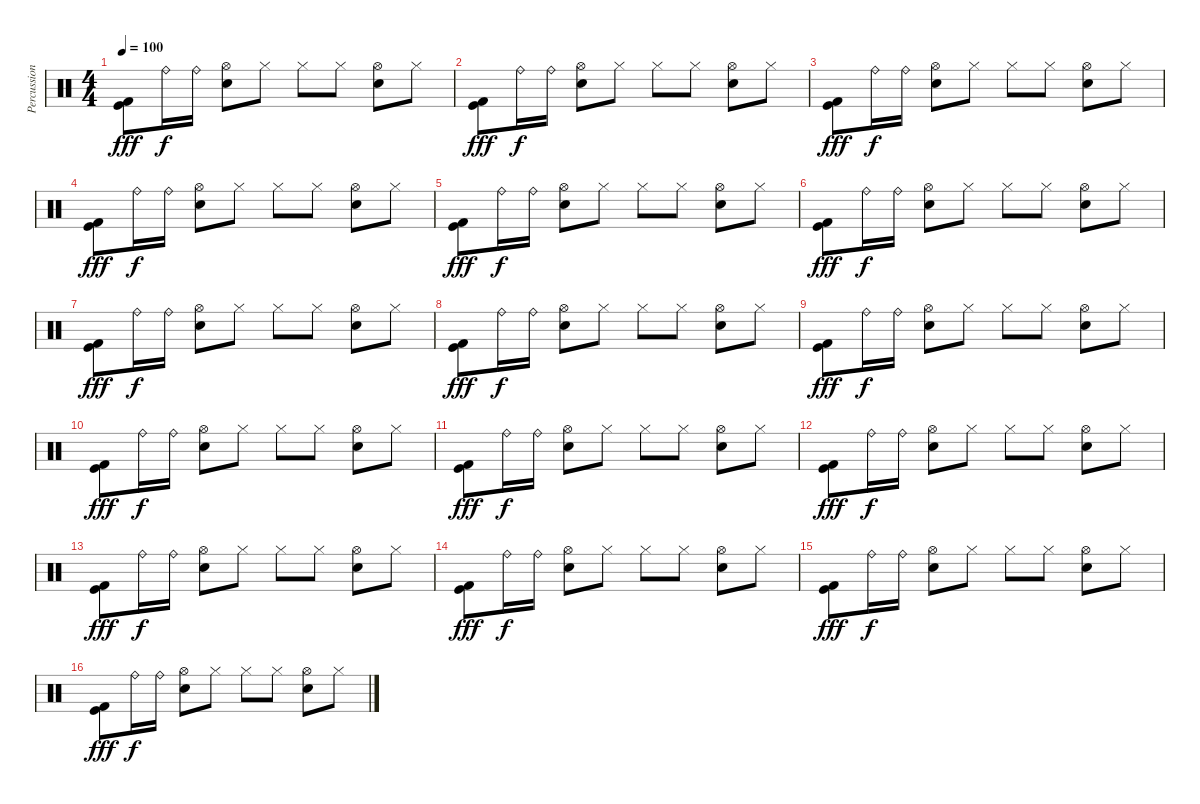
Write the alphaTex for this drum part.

\track ("Percussion" "Percussion") {instrument percussion}
\staff {score}
\articulation defaults
\ts (4 4)
\tempo 100
\clef neutral
\ks c
("Kick (hit) 2" "Kick (hit)").8{dy fff} "Ride (bell)".16{dy f} "Ride (bell)".16 ("Snare (hit) 2" "Hi-Hat (open)").8 "Hi-Hat (closed)".8 "Hi-Hat (closed)".8 "Hi-Hat (closed)".8 ("Snare (hit) 2" "Hi-Hat (open)").8 "Hi-Hat (closed)".8 |
("Kick (hit) 2" "Kick (hit)").8{dy fff} "Ride (bell)".16{dy f} "Ride (bell)".16 ("Snare (hit) 2" "Hi-Hat (open)").8 "Hi-Hat (closed)".8 "Hi-Hat (closed)".8 "Hi-Hat (closed)".8 ("Snare (hit) 2" "Hi-Hat (open)").8 "Hi-Hat (closed)".8 |
("Kick (hit) 2" "Kick (hit)").8{dy fff} "Ride (bell)".16{dy f} "Ride (bell)".16 ("Snare (hit) 2" "Hi-Hat (open)").8 "Hi-Hat (closed)".8 "Hi-Hat (closed)".8 "Hi-Hat (closed)".8 ("Snare (hit) 2" "Hi-Hat (open)").8 "Hi-Hat (closed)".8 |
("Kick (hit) 2" "Kick (hit)").8{dy fff} "Ride (bell)".16{dy f} "Ride (bell)".16 ("Snare (hit) 2" "Hi-Hat (open)").8 "Hi-Hat (closed)".8 "Hi-Hat (closed)".8 "Hi-Hat (closed)".8 ("Snare (hit) 2" "Hi-Hat (open)").8 "Hi-Hat (closed)".8 |
("Kick (hit) 2" "Kick (hit)").8{dy fff} "Ride (bell)".16{dy f} "Ride (bell)".16 ("Snare (hit) 2" "Hi-Hat (open)").8 "Hi-Hat (closed)".8 "Hi-Hat (closed)".8 "Hi-Hat (closed)".8 ("Snare (hit) 2" "Hi-Hat (open)").8 "Hi-Hat (closed)".8 |
("Kick (hit) 2" "Kick (hit)").8{dy fff} "Ride (bell)".16{dy f} "Ride (bell)".16 ("Snare (hit) 2" "Hi-Hat (open)").8 "Hi-Hat (closed)".8 "Hi-Hat (closed)".8 "Hi-Hat (closed)".8 ("Snare (hit) 2" "Hi-Hat (open)").8 "Hi-Hat (closed)".8 |
("Kick (hit) 2" "Kick (hit)").8{dy fff} "Ride (bell)".16{dy f} "Ride (bell)".16 ("Snare (hit) 2" "Hi-Hat (open)").8 "Hi-Hat (closed)".8 "Hi-Hat (closed)".8 "Hi-Hat (closed)".8 ("Snare (hit) 2" "Hi-Hat (open)").8 "Hi-Hat (closed)".8 |
("Kick (hit) 2" "Kick (hit)").8{dy fff} "Ride (bell)".16{dy f} "Ride (bell)".16 ("Snare (hit) 2" "Hi-Hat (open)").8 "Hi-Hat (closed)".8 "Hi-Hat (closed)".8 "Hi-Hat (closed)".8 ("Snare (hit) 2" "Hi-Hat (open)").8 "Hi-Hat (closed)".8 |
("Kick (hit) 2" "Kick (hit)").8{dy fff} "Ride (bell)".16{dy f} "Ride (bell)".16 ("Snare (hit) 2" "Hi-Hat (open)").8 "Hi-Hat (closed)".8 "Hi-Hat (closed)".8 "Hi-Hat (closed)".8 ("Snare (hit) 2" "Hi-Hat (open)").8 "Hi-Hat (closed)".8 |
("Kick (hit) 2" "Kick (hit)").8{dy fff} "Ride (bell)".16{dy f} "Ride (bell)".16 ("Snare (hit) 2" "Hi-Hat (open)").8 "Hi-Hat (closed)".8 "Hi-Hat (closed)".8 "Hi-Hat (closed)".8 ("Snare (hit) 2" "Hi-Hat (open)").8 "Hi-Hat (closed)".8 |
("Kick (hit) 2" "Kick (hit)").8{dy fff} "Ride (bell)".16{dy f} "Ride (bell)".16 ("Snare (hit) 2" "Hi-Hat (open)").8 "Hi-Hat (closed)".8 "Hi-Hat (closed)".8 "Hi-Hat (closed)".8 ("Snare (hit) 2" "Hi-Hat (open)").8 "Hi-Hat (closed)".8 |
("Kick (hit) 2" "Kick (hit)").8{dy fff} "Ride (bell)".16{dy f} "Ride (bell)".16 ("Snare (hit) 2" "Hi-Hat (open)").8 "Hi-Hat (closed)".8 "Hi-Hat (closed)".8 "Hi-Hat (closed)".8 ("Snare (hit) 2" "Hi-Hat (open)").8 "Hi-Hat (closed)".8 |
("Kick (hit) 2" "Kick (hit)").8{dy fff} "Ride (bell)".16{dy f} "Ride (bell)".16 ("Snare (hit) 2" "Hi-Hat (open)").8 "Hi-Hat (closed)".8 "Hi-Hat (closed)".8 "Hi-Hat (closed)".8 ("Snare (hit) 2" "Hi-Hat (open)").8 "Hi-Hat (closed)".8 |
("Kick (hit) 2" "Kick (hit)").8{dy fff} "Ride (bell)".16{dy f} "Ride (bell)".16 ("Snare (hit) 2" "Hi-Hat (open)").8 "Hi-Hat (closed)".8 "Hi-Hat (closed)".8 "Hi-Hat (closed)".8 ("Snare (hit) 2" "Hi-Hat (open)").8 "Hi-Hat (closed)".8 |
("Kick (hit) 2" "Kick (hit)").8{dy fff} "Ride (bell)".16{dy f} "Ride (bell)".16 ("Snare (hit) 2" "Hi-Hat (open)").8 "Hi-Hat (closed)".8 "Hi-Hat (closed)".8 "Hi-Hat (closed)".8 ("Snare (hit) 2" "Hi-Hat (open)").8 "Hi-Hat (closed)".8 |
("Kick (hit) 2" "Kick (hit)").8{dy fff} "Ride (bell)".16{dy f} "Ride (bell)".16 ("Snare (hit) 2" "Hi-Hat (open)").8 "Hi-Hat (closed)".8 "Hi-Hat (closed)".8 "Hi-Hat (closed)".8 ("Snare (hit) 2" "Hi-Hat (open)").8 "Hi-Hat (closed)".8
